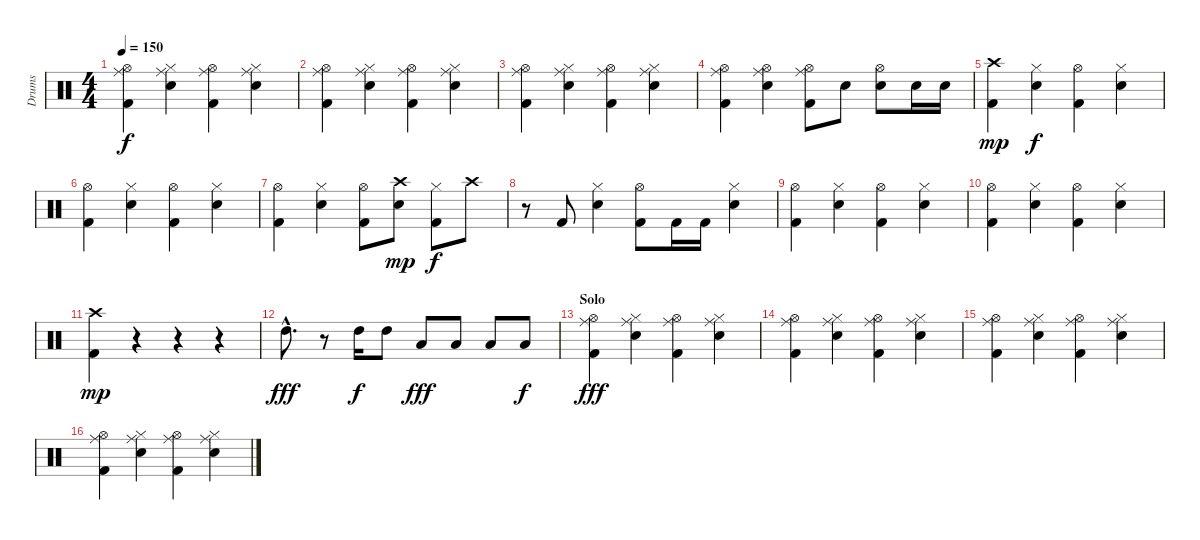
\track ("Drums" "Drums") {instrument percussion}
\staff {score}
\articulation defaults
\ts (4 4)
\tempo 150
\clef neutral
\ks c
("Kick (hit) 2" "Ride (middle)" "Hi-Hat (open)").4{dy f} ("Electric Snare (hit)" "Ride (middle)" "Hi-Hat (closed)").4 ("Kick (hit) 2" "Ride (middle)" "Hi-Hat (open)").4 ("Electric Snare (hit)" "Ride (middle)" "Hi-Hat (closed)").4 |
("Kick (hit) 2" "Ride (middle)" "Hi-Hat (open)").4 ("Electric Snare (hit)" "Ride (middle)" "Hi-Hat (closed)").4 ("Kick (hit) 2" "Ride (middle)" "Hi-Hat (open)").4 ("Electric Snare (hit)" "Ride (middle)" "Hi-Hat (closed)").4 |
("Kick (hit) 2" "Ride (middle)" "Hi-Hat (open)").4 ("Electric Snare (hit)" "Ride (middle)" "Hi-Hat (closed)").4 ("Kick (hit) 2" "Ride (middle)" "Hi-Hat (open)").4 ("Electric Snare (hit)" "Ride (middle)" "Hi-Hat (closed)").4 |
("Kick (hit) 2" "Ride (middle)" "Hi-Hat (open)").4 ("Electric Snare (hit)" "Ride (middle)" "Hi-Hat (open)").4 ("Kick (hit) 2" "Ride (middle)" "Hi-Hat (open)").8 "Electric Snare (hit)".8 ("Electric Snare (hit)" "Hi-Hat (open)").8 "Electric Snare (hit)".16 "Electric Snare (hit)".16 |
("Kick (hit) 2" "Crash high (hit)").4{dy mp} ("Electric Snare (hit)" "Hi-Hat (closed)").4{dy f} ("Kick (hit) 2" "Hi-Hat (open)").4 ("Electric Snare (hit)" "Hi-Hat (closed)").4 |
("Kick (hit) 2" "Hi-Hat (open)").4 ("Electric Snare (hit)" "Hi-Hat (closed)").4 ("Kick (hit) 2" "Hi-Hat (open)").4 ("Electric Snare (hit)" "Hi-Hat (closed)").4 |
("Kick (hit) 2" "Hi-Hat (open)").4 ("Electric Snare (hit)" "Hi-Hat (closed)").4 ("Kick (hit) 2" "Hi-Hat (open)").8 ("Electric Snare (hit)" "Crash high (hit)").8{dy mp} ("Kick (hit) 2" "Hi-Hat (closed)").8{dy f} "Crash high (hit)".8 |
r.8 "Kick (hit) 2".8 ("Electric Snare (hit)" "Hi-Hat (closed)").4 ("Kick (hit) 2" "Hi-Hat (open)").8 "Kick (hit) 2".16 "Kick (hit) 2".16 ("Electric Snare (hit)" "Hi-Hat (closed)").4 |
("Kick (hit) 2" "Hi-Hat (open)").4 ("Electric Snare (hit)" "Hi-Hat (closed)").4 ("Kick (hit) 2" "Hi-Hat (open)").4 ("Electric Snare (hit)" "Hi-Hat (closed)").4 |
("Kick (hit) 2" "Hi-Hat (open)").4 ("Electric Snare (hit)" "Hi-Hat (closed)").4 ("Kick (hit) 2" "Hi-Hat (open)").4 ("Electric Snare (hit)" "Hi-Hat (closed)").4 |
("Kick (hit) 2" "Crash high (hit)").4{dy mp} r.4 r.4 r.4 |
"High Tom (hit)"{tr (48 16) hac}.8{d dy fff} r.8 "High Tom (hit)".16{dy f} "High Tom (hit)".8 "Low Floor Tom (hit)".8{dy fff} "Low Floor Tom (hit)".8 "Low Floor Tom (hit)".8 "Low Floor Tom (hit)".8{dy f} |
\section ("" "Solo")
("Kick (hit) 2" "Ride (middle)" "Hi-Hat (open)").4{dy fff} ("Electric Snare (hit)" "Ride (middle)" "Hi-Hat (closed)").4 ("Kick (hit) 2" "Ride (middle)" "Hi-Hat (open)").4 ("Electric Snare (hit)" "Ride (middle)" "Hi-Hat (closed)").4 |
("Kick (hit) 2" "Ride (middle)" "Hi-Hat (open)").4 ("Electric Snare (hit)" "Ride (middle)" "Hi-Hat (closed)").4 ("Kick (hit) 2" "Ride (middle)" "Hi-Hat (open)").4 ("Electric Snare (hit)" "Ride (middle)" "Hi-Hat (closed)").4 |
("Kick (hit) 2" "Ride (middle)" "Hi-Hat (open)").4 ("Electric Snare (hit)" "Ride (middle)" "Hi-Hat (closed)").4 ("Kick (hit) 2" "Ride (middle)" "Hi-Hat (open)").4 ("Electric Snare (hit)" "Ride (middle)" "Hi-Hat (closed)").4 |
("Kick (hit) 2" "Ride (middle)" "Hi-Hat (open)").4 ("Electric Snare (hit)" "Ride (middle)" "Hi-Hat (closed)").4 ("Kick (hit) 2" "Ride (middle)" "Hi-Hat (open)").4 ("Electric Snare (hit)" "Ride (middle)" "Hi-Hat (closed)").4
